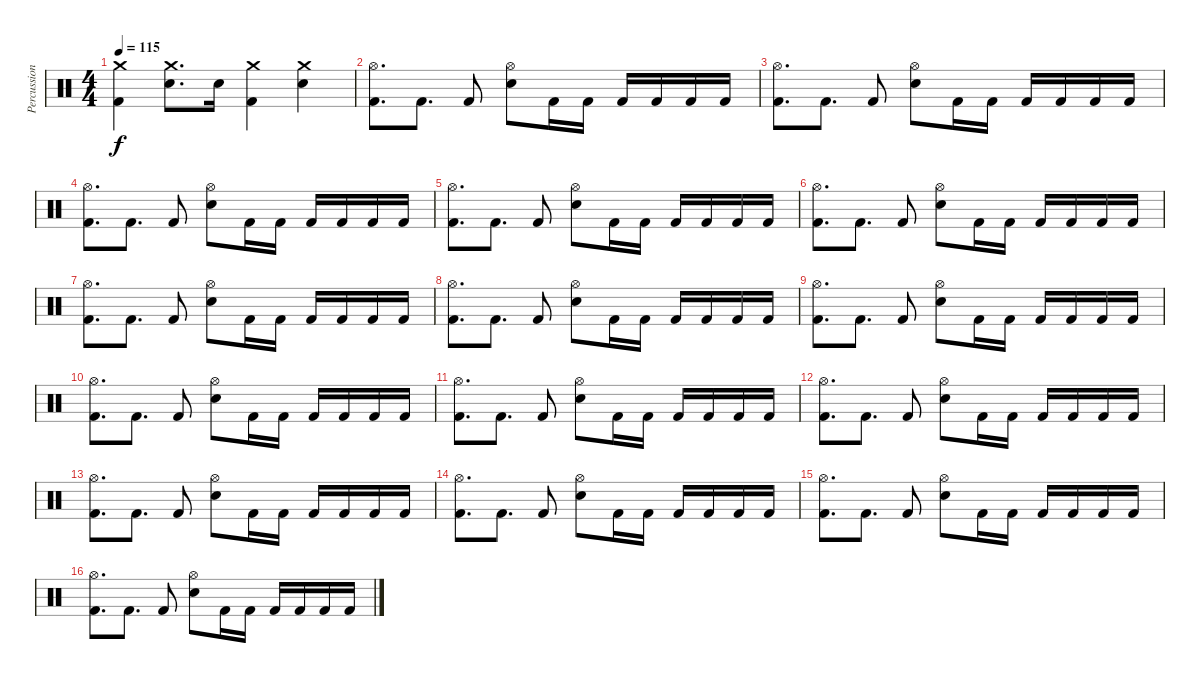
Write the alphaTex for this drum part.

\track ("Percussions" "Percussion") {instrument percussion}
\staff {score}
\articulation defaults
\ts (4 4)
\tempo 115
\clef neutral
\ks c
("Crash medium (hit)" "Kick (hit) 2").4{dy f} ("Crash medium (hit)" "Electric Snare (hit)").8{d} "Electric Snare (hit)".16 ("Crash medium (hit)" "Kick (hit) 2").4 ("Crash medium (hit)" "Electric Snare (hit)").4 |
("Kick (hit) 2" "Hi-Hat (open)").8{d} "Kick (hit) 2".8{d} "Kick (hit) 2".8 ("Electric Snare (hit)" "Hi-Hat (open)").8 "Kick (hit) 2".16 "Kick (hit) 2".16 "Kick (hit) 2".16 "Kick (hit) 2".16 "Kick (hit) 2".16 "Kick (hit) 2".16 |
("Kick (hit) 2" "Hi-Hat (open)").8{d} "Kick (hit) 2".8{d} "Kick (hit) 2".8 ("Electric Snare (hit)" "Hi-Hat (open)").8 "Kick (hit) 2".16 "Kick (hit) 2".16 "Kick (hit) 2".16 "Kick (hit) 2".16 "Kick (hit) 2".16 "Kick (hit) 2".16 |
("Kick (hit) 2" "Hi-Hat (open)").8{d} "Kick (hit) 2".8{d} "Kick (hit) 2".8 ("Electric Snare (hit)" "Hi-Hat (open)").8 "Kick (hit) 2".16 "Kick (hit) 2".16 "Kick (hit) 2".16 "Kick (hit) 2".16 "Kick (hit) 2".16 "Kick (hit) 2".16 |
("Kick (hit) 2" "Hi-Hat (open)").8{d} "Kick (hit) 2".8{d} "Kick (hit) 2".8 ("Electric Snare (hit)" "Hi-Hat (open)").8 "Kick (hit) 2".16 "Kick (hit) 2".16 "Kick (hit) 2".16 "Kick (hit) 2".16 "Kick (hit) 2".16 "Kick (hit) 2".16 |
("Kick (hit) 2" "Hi-Hat (open)").8{d} "Kick (hit) 2".8{d} "Kick (hit) 2".8 ("Electric Snare (hit)" "Hi-Hat (open)").8 "Kick (hit) 2".16 "Kick (hit) 2".16 "Kick (hit) 2".16 "Kick (hit) 2".16 "Kick (hit) 2".16 "Kick (hit) 2".16 |
("Kick (hit) 2" "Hi-Hat (open)").8{d} "Kick (hit) 2".8{d} "Kick (hit) 2".8 ("Electric Snare (hit)" "Hi-Hat (open)").8 "Kick (hit) 2".16 "Kick (hit) 2".16 "Kick (hit) 2".16 "Kick (hit) 2".16 "Kick (hit) 2".16 "Kick (hit) 2".16 |
("Kick (hit) 2" "Hi-Hat (open)").8{d} "Kick (hit) 2".8{d} "Kick (hit) 2".8 ("Electric Snare (hit)" "Hi-Hat (open)").8 "Kick (hit) 2".16 "Kick (hit) 2".16 "Kick (hit) 2".16 "Kick (hit) 2".16 "Kick (hit) 2".16 "Kick (hit) 2".16 |
("Kick (hit) 2" "Hi-Hat (open)").8{d} "Kick (hit) 2".8{d} "Kick (hit) 2".8 ("Electric Snare (hit)" "Hi-Hat (open)").8 "Kick (hit) 2".16 "Kick (hit) 2".16 "Kick (hit) 2".16 "Kick (hit) 2".16 "Kick (hit) 2".16 "Kick (hit) 2".16 |
("Kick (hit) 2" "Hi-Hat (open)").8{d} "Kick (hit) 2".8{d} "Kick (hit) 2".8 ("Electric Snare (hit)" "Hi-Hat (open)").8 "Kick (hit) 2".16 "Kick (hit) 2".16 "Kick (hit) 2".16 "Kick (hit) 2".16 "Kick (hit) 2".16 "Kick (hit) 2".16 |
("Kick (hit) 2" "Hi-Hat (open)").8{d} "Kick (hit) 2".8{d} "Kick (hit) 2".8 ("Electric Snare (hit)" "Hi-Hat (open)").8 "Kick (hit) 2".16 "Kick (hit) 2".16 "Kick (hit) 2".16 "Kick (hit) 2".16 "Kick (hit) 2".16 "Kick (hit) 2".16 |
("Kick (hit) 2" "Hi-Hat (open)").8{d} "Kick (hit) 2".8{d} "Kick (hit) 2".8 ("Electric Snare (hit)" "Hi-Hat (open)").8 "Kick (hit) 2".16 "Kick (hit) 2".16 "Kick (hit) 2".16 "Kick (hit) 2".16 "Kick (hit) 2".16 "Kick (hit) 2".16 |
("Kick (hit) 2" "Hi-Hat (open)").8{d} "Kick (hit) 2".8{d} "Kick (hit) 2".8 ("Electric Snare (hit)" "Hi-Hat (open)").8 "Kick (hit) 2".16 "Kick (hit) 2".16 "Kick (hit) 2".16 "Kick (hit) 2".16 "Kick (hit) 2".16 "Kick (hit) 2".16 |
("Kick (hit) 2" "Hi-Hat (open)").8{d} "Kick (hit) 2".8{d} "Kick (hit) 2".8 ("Electric Snare (hit)" "Hi-Hat (open)").8 "Kick (hit) 2".16 "Kick (hit) 2".16 "Kick (hit) 2".16 "Kick (hit) 2".16 "Kick (hit) 2".16 "Kick (hit) 2".16 |
("Kick (hit) 2" "Hi-Hat (open)").8{d} "Kick (hit) 2".8{d} "Kick (hit) 2".8 ("Electric Snare (hit)" "Hi-Hat (open)").8 "Kick (hit) 2".16 "Kick (hit) 2".16 "Kick (hit) 2".16 "Kick (hit) 2".16 "Kick (hit) 2".16 "Kick (hit) 2".16 |
("Kick (hit) 2" "Hi-Hat (open)").8{d} "Kick (hit) 2".8{d} "Kick (hit) 2".8 ("Electric Snare (hit)" "Hi-Hat (open)").8 "Kick (hit) 2".16 "Kick (hit) 2".16 "Kick (hit) 2".16 "Kick (hit) 2".16 "Kick (hit) 2".16 "Kick (hit) 2".16
